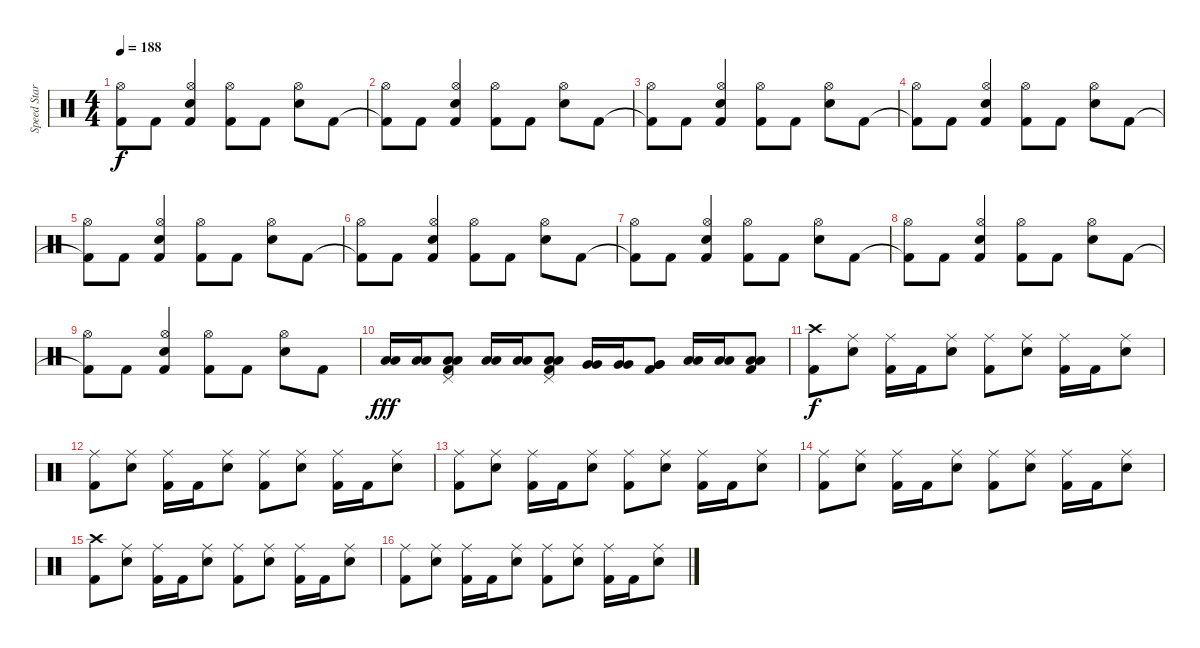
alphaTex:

\track ("Speed Star Sypan Joe" "Speed Star") {instrument percussion}
\staff {score}
\articulation defaults
\ts (4 4)
\tempo 188
\clef neutral
\ks c
("Kick (hit) 2"{t} "Hi-Hat (open)").8{dy f} "Kick (hit) 2".8 ("Kick (hit) 2" "Electric Snare (hit)" "Hi-Hat (open)").4 ("Kick (hit) 2" "Hi-Hat (open)").8 "Kick (hit) 2".8 ("Electric Snare (hit)" "Hi-Hat (open)").8 "Kick (hit) 2".8 |
("Kick (hit) 2"{t} "Hi-Hat (open)").8 "Kick (hit) 2".8 ("Kick (hit) 2" "Electric Snare (hit)" "Hi-Hat (open)").4 ("Kick (hit) 2" "Hi-Hat (open)").8 "Kick (hit) 2".8 ("Electric Snare (hit)" "Hi-Hat (open)").8 "Kick (hit) 2".8 |
("Kick (hit) 2"{t} "Hi-Hat (open)").8 "Kick (hit) 2".8 ("Kick (hit) 2" "Electric Snare (hit)" "Hi-Hat (open)").4 ("Kick (hit) 2" "Hi-Hat (open)").8 "Kick (hit) 2".8 ("Electric Snare (hit)" "Hi-Hat (open)").8 "Kick (hit) 2".8 |
("Kick (hit) 2"{t} "Hi-Hat (open)").8 "Kick (hit) 2".8 ("Kick (hit) 2" "Electric Snare (hit)" "Hi-Hat (open)").4 ("Kick (hit) 2" "Hi-Hat (open)").8 "Kick (hit) 2".8 ("Electric Snare (hit)" "Hi-Hat (open)").8 "Kick (hit) 2".8 |
("Kick (hit) 2"{t} "Hi-Hat (open)").8 "Kick (hit) 2".8 ("Kick (hit) 2" "Electric Snare (hit)" "Hi-Hat (open)").4 ("Kick (hit) 2" "Hi-Hat (open)").8 "Kick (hit) 2".8 ("Electric Snare (hit)" "Hi-Hat (open)").8 "Kick (hit) 2".8 |
("Kick (hit) 2"{t} "Hi-Hat (open)").8 "Kick (hit) 2".8 ("Kick (hit) 2" "Electric Snare (hit)" "Hi-Hat (open)").4 ("Kick (hit) 2" "Hi-Hat (open)").8 "Kick (hit) 2".8 ("Electric Snare (hit)" "Hi-Hat (open)").8 "Kick (hit) 2".8 |
("Kick (hit) 2"{t} "Hi-Hat (open)").8 "Kick (hit) 2".8 ("Kick (hit) 2" "Electric Snare (hit)" "Hi-Hat (open)").4 ("Kick (hit) 2" "Hi-Hat (open)").8 "Kick (hit) 2".8 ("Electric Snare (hit)" "Hi-Hat (open)").8 "Kick (hit) 2".8 |
("Kick (hit) 2"{t} "Hi-Hat (open)").8 "Kick (hit) 2".8 ("Kick (hit) 2" "Electric Snare (hit)" "Hi-Hat (open)").4 ("Kick (hit) 2" "Hi-Hat (open)").8 "Kick (hit) 2".8 ("Electric Snare (hit)" "Hi-Hat (open)").8 "Kick (hit) 2".8 |
("Kick (hit) 2"{t} "Hi-Hat (open)").8 "Kick (hit) 2".8 ("Kick (hit) 2" "Electric Snare (hit)" "Hi-Hat (open)").4 ("Kick (hit) 2" "Hi-Hat (open)").8 "Kick (hit) 2".8 ("Electric Snare (hit)" "Hi-Hat (open)").8 "Kick (hit) 2".8 |
("Low Tom (hit)" "Low Tom (hit)").16{dy fff} ("Low Tom (hit)" "Low Tom (hit)").16 ("Low Tom (hit)" "Kick (hit) 2" "Low Tom (hit)" "Pedal Hi-Hat (hit)").8 ("Low Tom (hit)" "Low Tom (hit)").16 ("Low Tom (hit)" "Low Tom (hit)").16 ("Low Tom (hit)" "Kick (hit) 2" "Low Tom (hit)" "Pedal Hi-Hat (hit)").8 ("Very Low Tom (hit)" "Very Low Tom (hit)").16 ("Very Low Tom (hit)" "Very Low Tom (hit)").16 ("Very Low Tom (hit)" "Kick (hit) 2" "Very Low Tom (hit)").8 ("Low Floor Tom (hit)" "Low Floor Tom (hit)").16 ("Low Floor Tom (hit)" "Low Floor Tom (hit)").16 ("Low Floor Tom (hit)" "Kick (hit) 2" "Low Floor Tom (hit)").8 |
("Kick (hit) 2" "Crash high (hit)").8{dy f} ("Electric Snare (hit)" "Ride (middle)").8 ("Kick (hit) 2" "Ride (middle)").16 "Kick (hit) 2".16 ("Electric Snare (hit)" "Ride (middle)").8 ("Kick (hit) 2" "Ride (middle)").8 ("Electric Snare (hit)" "Ride (middle)").8 ("Kick (hit) 2" "Ride (middle)").16 "Kick (hit) 2".16 ("Electric Snare (hit)" "Ride (middle)").8 |
("Kick (hit) 2" "Ride (middle)").8 ("Electric Snare (hit)" "Ride (middle)").8 ("Kick (hit) 2" "Ride (middle)").16 "Kick (hit) 2".16 ("Electric Snare (hit)" "Ride (middle)").8 ("Kick (hit) 2" "Ride (middle)").8 ("Electric Snare (hit)" "Ride (middle)").8 ("Kick (hit) 2" "Ride (middle)").16 "Kick (hit) 2".16 ("Electric Snare (hit)" "Ride (middle)").8 |
("Kick (hit) 2" "Ride (middle)").8 ("Electric Snare (hit)" "Ride (middle)").8 ("Kick (hit) 2" "Ride (middle)").16 "Kick (hit) 2".16 ("Electric Snare (hit)" "Ride (middle)").8 ("Kick (hit) 2" "Ride (middle)").8 ("Electric Snare (hit)" "Ride (middle)").8 ("Kick (hit) 2" "Ride (middle)").16 "Kick (hit) 2".16 ("Electric Snare (hit)" "Ride (middle)").8 |
("Kick (hit) 2" "Ride (middle)").8 ("Electric Snare (hit)" "Ride (middle)").8 ("Kick (hit) 2" "Ride (middle)").16 "Kick (hit) 2".16 ("Electric Snare (hit)" "Ride (middle)").8 ("Kick (hit) 2" "Ride (middle)").8 ("Electric Snare (hit)" "Ride (middle)").8 ("Kick (hit) 2" "Ride (middle)").16 "Kick (hit) 2".16 ("Electric Snare (hit)" "Ride (middle)").8 |
("Kick (hit) 2" "Crash high (hit)").8 ("Electric Snare (hit)" "Ride (middle)").8 ("Kick (hit) 2" "Ride (middle)").16 "Kick (hit) 2".16 ("Electric Snare (hit)" "Ride (middle)").8 ("Kick (hit) 2" "Ride (middle)").8 ("Electric Snare (hit)" "Ride (middle)").8 ("Kick (hit) 2" "Ride (middle)").16 "Kick (hit) 2".16 ("Electric Snare (hit)" "Ride (middle)").8 |
("Kick (hit) 2" "Ride (middle)").8 ("Electric Snare (hit)" "Ride (middle)").8 ("Kick (hit) 2" "Ride (middle)").16 "Kick (hit) 2".16 ("Electric Snare (hit)" "Ride (middle)").8 ("Kick (hit) 2" "Ride (middle)").8 ("Electric Snare (hit)" "Ride (middle)").8 ("Kick (hit) 2" "Ride (middle)").16 "Kick (hit) 2".16 ("Electric Snare (hit)" "Ride (middle)").8
